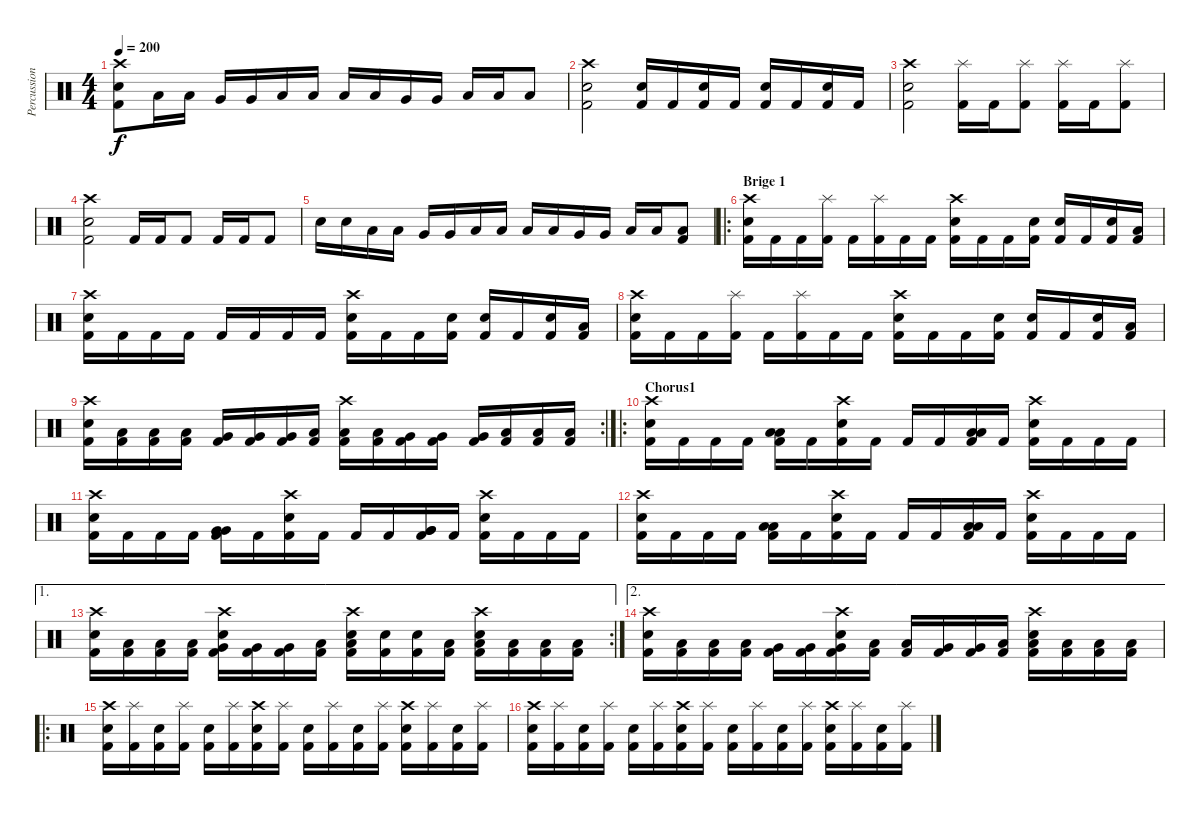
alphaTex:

\track ("Percussion" "Percussion") {instrument percussion}
\staff {score}
\articulation defaults
\ts (4 4)
\tempo 200
\clef neutral
\ks c
("Crash high (hit)" "Snare (hit) 2" "Kick (hit) 2").8{dy f} "Low Tom (hit)".16 "Low Tom (hit)".16 "Very Low Tom (hit)".16 "Very Low Tom (hit)".16 "Low Floor Tom (hit)".16 "Low Floor Tom (hit)".16 "Low Tom (hit)".16 "Low Tom (hit)".16 "Very Low Tom (hit)".16 "Very Low Tom (hit)".16 "Low Floor Tom (hit)".16 "Low Floor Tom (hit)".16 "Low Floor Tom (hit)".8 |
("Crash high (hit)" "Snare (hit) 2" "Kick (hit) 2").2 ("Snare (hit) 2" "Kick (hit) 2").16 "Kick (hit) 2".16 ("Snare (hit) 2" "Kick (hit) 2").16 "Kick (hit) 2".16 ("Snare (hit) 2" "Kick (hit) 2").16 "Kick (hit) 2".16 ("Snare (hit) 2" "Kick (hit) 2").16 "Kick (hit) 2".16 |
("Crash high (hit)" "Snare (hit) 2" "Kick (hit) 2").2 ("Splash (hit)" "Kick (hit) 2").16 "Kick (hit) 2".16 ("Splash (hit)" "Kick (hit) 2").8 ("Splash (hit)" "Kick (hit) 2").16 "Kick (hit) 2".16 ("Splash (hit)" "Kick (hit) 2").8 |
("Crash high (hit)" "Snare (hit) 2" "Kick (hit) 2").2 "Kick (hit) 2".16 "Kick (hit) 2".16 "Kick (hit) 2".8 "Kick (hit) 2".16 "Kick (hit) 2".16 "Kick (hit) 2".8 |
"Electric Snare (hit)".16 "Electric Snare (hit)".16 "Low Tom (hit)".16 "Low Tom (hit)".16 "Very Low Tom (hit)".16 "Very Low Tom (hit)".16 "Low Floor Tom (hit)".16 "Low Floor Tom (hit)".16 "Low Tom (hit)".16 "Low Tom (hit)".16 "Very Low Tom (hit)".16 "Very Low Tom (hit)".16 "Low Floor Tom (hit)".16 "Low Floor Tom (hit)".16 ("Low Floor Tom (hit)" "Kick (hit) 2").8 |
\ro
\section ("" "Brige 1")
("Snare (hit) 2" "Crash high (hit)" "Kick (hit) 2").16 "Kick (hit) 2".16 "Kick (hit) 2".16 ("Splash (hit)" "Kick (hit) 2").16 "Kick (hit) 2".16 ("Splash (hit)" "Kick (hit) 2").16 "Kick (hit) 2".16 "Kick (hit) 2".16 ("Crash high (hit)" "Snare (hit) 2" "Kick (hit) 2").16 "Kick (hit) 2".16 "Kick (hit) 2".16 ("Electric Snare (hit)" "Kick (hit) 2").16 ("Snare (hit) 2" "Kick (hit) 2").16 "Kick (hit) 2".16 ("Snare (hit) 2" "Kick (hit) 2").16 ("Low Tom (hit)" "Kick (hit) 2").16 |
("Snare (hit) 2" "Crash high (hit)" "Kick (hit) 2").16 "Kick (hit) 2".16 "Kick (hit) 2".16 "Kick (hit) 2".16 "Kick (hit) 2".16 "Kick (hit) 2".16 "Kick (hit) 2".16 "Kick (hit) 2".16 ("Crash high (hit)" "Snare (hit) 2" "Kick (hit) 2").16 "Kick (hit) 2".16 "Kick (hit) 2".16 ("Electric Snare (hit)" "Kick (hit) 2").16 ("Snare (hit) 2" "Kick (hit) 2").16 "Kick (hit) 2".16 ("Snare (hit) 2" "Kick (hit) 2").16 ("Low Tom (hit)" "Kick (hit) 2").16 |
("Snare (hit) 2" "Crash high (hit)" "Kick (hit) 2").16 "Kick (hit) 2".16 "Kick (hit) 2".16 ("Splash (hit)" "Kick (hit) 2").16 "Kick (hit) 2".16 ("Splash (hit)" "Kick (hit) 2").16 "Kick (hit) 2".16 "Kick (hit) 2".16 ("Crash high (hit)" "Snare (hit) 2" "Kick (hit) 2").16 "Kick (hit) 2".16 "Kick (hit) 2".16 ("Electric Snare (hit)" "Kick (hit) 2").16 ("Snare (hit) 2" "Kick (hit) 2").16 "Kick (hit) 2".16 ("Snare (hit) 2" "Kick (hit) 2").16 ("Low Tom (hit)" "Kick (hit) 2").16 |
\rc 2
("Snare (hit) 2" "Crash high (hit)" "Kick (hit) 2").16 ("Low Floor Tom (hit)" "Kick (hit) 2").16 ("Low Floor Tom (hit)" "Kick (hit) 2").16 ("Low Floor Tom (hit)" "Kick (hit) 2").16 ("Very Low Tom (hit)" "Kick (hit) 2").16 ("Very Low Tom (hit)" "Kick (hit) 2").16 ("Very Low Tom (hit)" "Kick (hit) 2").16 ("Low Tom (hit)" "Kick (hit) 2").16 ("Crash high (hit)" "Low Tom (hit)" "Kick (hit) 2").16 ("Low Tom (hit)" "Kick (hit) 2").16 ("Very Low Tom (hit)" "Kick (hit) 2").16 ("Very Low Tom (hit)" "Kick (hit) 2").16 ("Very Low Tom (hit)" "Kick (hit) 2").16 ("Low Floor Tom (hit)" "Kick (hit) 2").16 ("Low Floor Tom (hit)" "Kick (hit) 2").16 ("Low Floor Tom (hit)" "Kick (hit) 2").16 |
\ro
\section ("" "Chorus1")
("Crash high (hit)" "Snare (hit) 2" "Kick (hit) 2").16 "Kick (hit) 2".16 "Kick (hit) 2".16 "Kick (hit) 2".16 ("Low Tom (hit)" "Low Tom (hit)" "Kick (hit) 2").16 "Kick (hit) 2".16 ("Crash high (hit)" "Snare (hit) 2" "Kick (hit) 2").16 "Kick (hit) 2".16 "Kick (hit) 2".16 "Kick (hit) 2".16 ("Low Tom (hit)" "Low Tom (hit)" "Kick (hit) 2").16 "Kick (hit) 2".16 ("Crash high (hit)" "Snare (hit) 2" "Kick (hit) 2").16 "Kick (hit) 2".16 "Kick (hit) 2".16 "Kick (hit) 2".16 |
("Crash high (hit)" "Snare (hit) 2" "Kick (hit) 2").16 "Kick (hit) 2".16 "Kick (hit) 2".16 "Kick (hit) 2".16 ("Very Low Tom (hit)" "Very Low Tom (hit)" "Kick (hit) 2").16 "Kick (hit) 2".16 ("Crash high (hit)" "Snare (hit) 2" "Kick (hit) 2").16 "Kick (hit) 2".16 "Kick (hit) 2".16 "Kick (hit) 2".16 ("Very Low Tom (hit)" "Very Low Tom (hit)" "Kick (hit) 2").16 "Kick (hit) 2".16 ("Crash high (hit)" "Snare (hit) 2" "Kick (hit) 2").16 "Kick (hit) 2".16 "Kick (hit) 2".16 "Kick (hit) 2".16 |
("Crash high (hit)" "Snare (hit) 2" "Kick (hit) 2").16 "Kick (hit) 2".16 "Kick (hit) 2".16 "Kick (hit) 2".16 ("Low Floor Tom (hit)" "Low Floor Tom (hit)" "Kick (hit) 2").16 "Kick (hit) 2".16 ("Crash high (hit)" "Snare (hit) 2" "Kick (hit) 2").16 "Kick (hit) 2".16 "Kick (hit) 2".16 "Kick (hit) 2".16 ("Low Floor Tom (hit)" "Low Floor Tom (hit)" "Kick (hit) 2").16 "Kick (hit) 2".16 ("Crash high (hit)" "Snare (hit) 2" "Kick (hit) 2").16 "Kick (hit) 2".16 "Kick (hit) 2".16 "Kick (hit) 2".16 |
\ae 1
\rc 2
("Crash high (hit)" "Snare (hit) 2" "Kick (hit) 2").16 ("Low Tom (hit)" "Kick (hit) 2").16 ("Low Tom (hit)" "Kick (hit) 2").16 ("Low Tom (hit)" "Kick (hit) 2").16 ("Very Low Tom (hit)" "Crash high (hit)" "Snare (hit) 2" "Kick (hit) 2").16 ("Very Low Tom (hit)" "Kick (hit) 2").16 ("Very Low Tom (hit)" "Kick (hit) 2").16 ("Low Floor Tom (hit)" "Kick (hit) 2").16 ("Low Floor Tom (hit)" "Crash high (hit)" "Snare (hit) 2" "Kick (hit) 2").16 ("Electric Snare (hit)" "Kick (hit) 2").16 ("Electric Snare (hit)" "Kick (hit) 2").16 ("Low Tom (hit)" "Kick (hit) 2").16 ("Low Tom (hit)" "Crash high (hit)" "Snare (hit) 2" "Kick (hit) 2").16 ("Low Floor Tom (hit)" "Kick (hit) 2").16 ("Low Floor Tom (hit)" "Kick (hit) 2").16 ("Low Floor Tom (hit)" "Kick (hit) 2").16 |
\ae 2
("Crash high (hit)" "Snare (hit) 2" "Kick (hit) 2").16 ("Low Tom (hit)" "Kick (hit) 2").16 ("Low Tom (hit)" "Kick (hit) 2").16 ("Low Tom (hit)" "Kick (hit) 2").16 ("Very Low Tom (hit)" "Kick (hit) 2").16 ("Very Low Tom (hit)" "Kick (hit) 2").16 ("Very Low Tom (hit)" "Crash high (hit)" "Snare (hit) 2" "Kick (hit) 2").16 ("Low Floor Tom (hit)" "Kick (hit) 2").16 ("Low Floor Tom (hit)" "Kick (hit) 2").16 ("Very Low Tom (hit)" "Kick (hit) 2").16 ("Very Low Tom (hit)" "Kick (hit) 2").16 ("Low Tom (hit)" "Kick (hit) 2").16 ("Low Tom (hit)" "Crash high (hit)" "Snare (hit) 2" "Kick (hit) 2").16 ("Low Floor Tom (hit)" "Kick (hit) 2").16 ("Low Floor Tom (hit)" "Kick (hit) 2").16 ("Low Floor Tom (hit)" "Kick (hit) 2").16 |
\ro
("Crash high (hit)" "Snare (hit) 2" "Kick (hit) 2").16 ("Splash (hit)" "Kick (hit) 2").16 ("Snare (hit) 2" "Kick (hit) 2").16 ("Splash (hit)" "Kick (hit) 2").16 ("Snare (hit) 2" "Kick (hit) 2").16 ("Splash (hit)" "Kick (hit) 2").16 ("Crash high (hit)" "Snare (hit) 2" "Kick (hit) 2").16 ("Splash (hit)" "Kick (hit) 2").16 ("Snare (hit) 2" "Kick (hit) 2").16 ("Splash (hit)" "Kick (hit) 2").16 ("Snare (hit) 2" "Kick (hit) 2").16 ("Splash (hit)" "Kick (hit) 2").16 ("Crash high (hit)" "Snare (hit) 2" "Kick (hit) 2").16 ("Splash (hit)" "Kick (hit) 2").16 ("Snare (hit) 2" "Kick (hit) 2").16 ("Splash (hit)" "Kick (hit) 2").16 |
("Crash high (hit)" "Snare (hit) 2" "Kick (hit) 2").16 ("Splash (hit)" "Kick (hit) 2").16 ("Snare (hit) 2" "Kick (hit) 2").16 ("Splash (hit)" "Kick (hit) 2").16 ("Snare (hit) 2" "Kick (hit) 2").16 ("Splash (hit)" "Kick (hit) 2").16 ("Crash high (hit)" "Snare (hit) 2" "Kick (hit) 2").16 ("Splash (hit)" "Kick (hit) 2").16 ("Snare (hit) 2" "Kick (hit) 2").16 ("Splash (hit)" "Kick (hit) 2").16 ("Snare (hit) 2" "Kick (hit) 2").16 ("Splash (hit)" "Kick (hit) 2").16 ("Crash high (hit)" "Snare (hit) 2" "Kick (hit) 2").16 ("Splash (hit)" "Kick (hit) 2").16 ("Snare (hit) 2" "Kick (hit) 2").16 ("Splash (hit)" "Kick (hit) 2").16
